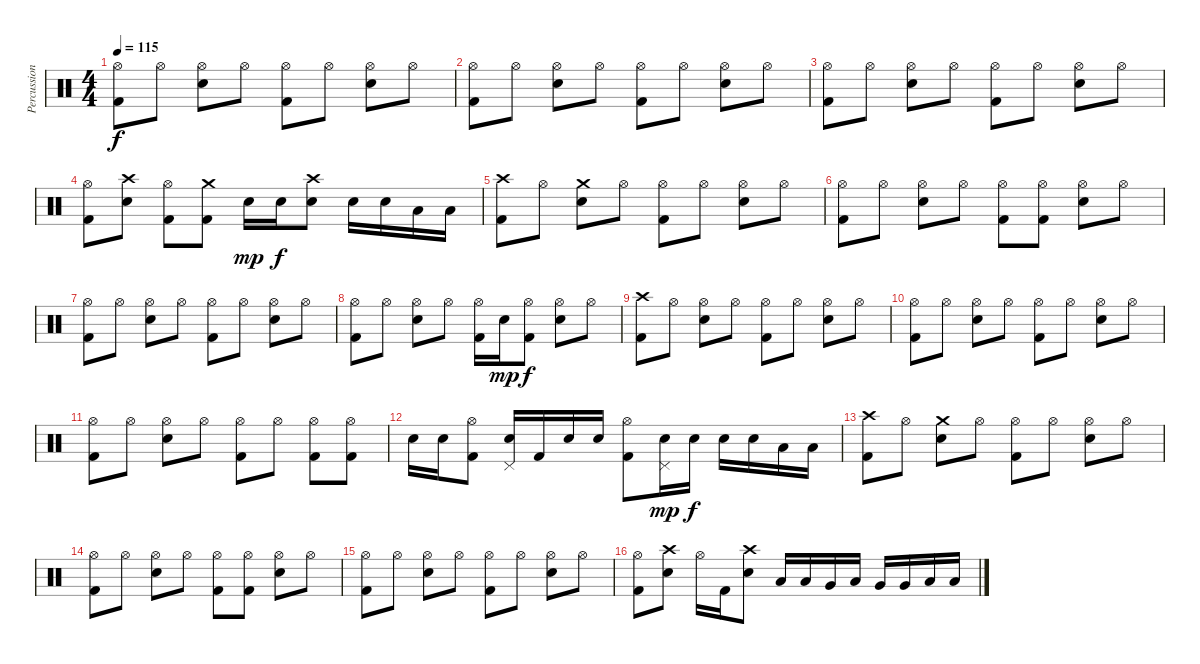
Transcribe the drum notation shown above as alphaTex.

\track ("Percussion" "Percussion") {instrument percussion}
\staff {score}
\articulation defaults
\ts (4 4)
\tempo 115
\clef neutral
\ks c
("Hi-Hat (open)" "Kick (hit) 2").8{dy f} "Hi-Hat (open)".8 ("Hi-Hat (open)" "Electric Snare (hit)").8 "Hi-Hat (open)".8 ("Hi-Hat (open)" "Kick (hit) 2").8 "Hi-Hat (open)".8 ("Hi-Hat (open)" "Electric Snare (hit)").8 "Hi-Hat (open)".8 |
("Hi-Hat (open)" "Kick (hit) 2").8 "Hi-Hat (open)".8 ("Hi-Hat (open)" "Electric Snare (hit)").8 "Hi-Hat (open)".8 ("Hi-Hat (open)" "Kick (hit) 2").8 "Hi-Hat (open)".8 ("Hi-Hat (open)" "Electric Snare (hit)").8 "Hi-Hat (open)".8 |
("Hi-Hat (open)" "Kick (hit) 2").8 "Hi-Hat (open)".8 ("Hi-Hat (open)" "Electric Snare (hit)").8 "Hi-Hat (open)".8 ("Hi-Hat (open)" "Kick (hit) 2").8 "Hi-Hat (open)".8 ("Hi-Hat (open)" "Electric Snare (hit)").8 "Hi-Hat (open)".8 |
("Hi-Hat (open)" "Kick (hit) 2").8 ("Crash high (hit)" "Electric Snare (hit)").8 ("Hi-Hat (open)" "Kick (hit) 2").8 ("Crash medium (hit)" "Kick (hit) 2").8 "Electric Snare (hit)".16{dy mp} "Electric Snare (hit)".16{dy f} ("Crash high (hit)" "Electric Snare (hit)").8 "Electric Snare (hit)".16 "Electric Snare (hit)".16 "Low Tom (hit)".16 "Low Floor Tom (hit)".16 |
("Crash high (hit)" "Kick (hit) 2").8 "Hi-Hat (open)".8 ("Crash medium (hit)" "Electric Snare (hit)").8 "Hi-Hat (open)".8 ("Hi-Hat (open)" "Kick (hit) 2").8 "Hi-Hat (open)".8 ("Hi-Hat (open)" "Electric Snare (hit)").8 "Hi-Hat (open)".8 |
("Hi-Hat (open)" "Kick (hit) 2").8 "Hi-Hat (open)".8 ("Hi-Hat (open)" "Electric Snare (hit)").8 "Hi-Hat (open)".8 ("Hi-Hat (open)" "Kick (hit) 2").8 ("Hi-Hat (open)" "Kick (hit) 2").8 ("Hi-Hat (open)" "Electric Snare (hit)").8 "Hi-Hat (open)".8 |
("Hi-Hat (open)" "Kick (hit) 2").8 "Hi-Hat (open)".8 ("Hi-Hat (open)" "Electric Snare (hit)").8 "Hi-Hat (open)".8 ("Hi-Hat (open)" "Kick (hit) 2").8 "Hi-Hat (open)".8 ("Hi-Hat (open)" "Electric Snare (hit)").8 "Hi-Hat (open)".8 |
("Hi-Hat (open)" "Kick (hit) 2").8 "Hi-Hat (open)".8 ("Hi-Hat (open)" "Electric Snare (hit)").8 "Hi-Hat (open)".8 ("Hi-Hat (open)" "Kick (hit) 2").16 "Electric Snare (hit)".16{dy mp} ("Hi-Hat (open)" "Kick (hit) 2").8{dy f} ("Hi-Hat (open)" "Electric Snare (hit)").8 "Hi-Hat (open)".8 |
("Crash high (hit)" "Kick (hit) 2").8 "Hi-Hat (open)".8 ("Hi-Hat (open)" "Electric Snare (hit)").8 "Hi-Hat (open)".8 ("Hi-Hat (open)" "Kick (hit) 2").8 "Hi-Hat (open)".8 ("Hi-Hat (open)" "Electric Snare (hit)").8 "Hi-Hat (open)".8 |
("Hi-Hat (open)" "Kick (hit) 2").8 "Hi-Hat (open)".8 ("Hi-Hat (open)" "Electric Snare (hit)").8 "Hi-Hat (open)".8 ("Hi-Hat (open)" "Kick (hit) 2").8 "Hi-Hat (open)".8 ("Hi-Hat (open)" "Electric Snare (hit)").8 "Hi-Hat (open)".8 |
("Hi-Hat (open)" "Kick (hit) 2").8 "Hi-Hat (open)".8 ("Hi-Hat (open)" "Electric Snare (hit)").8 "Hi-Hat (open)".8 ("Hi-Hat (open)" "Kick (hit) 2").8 "Hi-Hat (open)".8 ("Hi-Hat (open)" "Kick (hit) 2").8 ("Hi-Hat (open)" "Kick (hit) 2").8 |
"Electric Snare (hit)".16 "Electric Snare (hit)".16 ("Hi-Hat (open)" "Kick (hit) 2").8 ("Pedal Hi-Hat (hit)" "Electric Snare (hit)").16 "Kick (hit) 2".16 "Electric Snare (hit)".16 "Electric Snare (hit)".16 ("Hi-Hat (open)" "Kick (hit) 2").8 ("Pedal Hi-Hat (hit)" "Electric Snare (hit)").16{dy mp} "Electric Snare (hit)".16{dy f} "Electric Snare (hit)".16 "Electric Snare (hit)".16 "Low Tom (hit)".16 "Low Floor Tom (hit)".16 |
("Crash high (hit)" "Kick (hit) 2").8 "Hi-Hat (open)".8 ("Crash medium (hit)" "Electric Snare (hit)").8 "Hi-Hat (open)".8 ("Hi-Hat (open)" "Kick (hit) 2").8 "Hi-Hat (open)".8 ("Hi-Hat (open)" "Electric Snare (hit)").8 "Hi-Hat (open)".8 |
("Hi-Hat (open)" "Kick (hit) 2").8 "Hi-Hat (open)".8 ("Hi-Hat (open)" "Electric Snare (hit)").8 "Hi-Hat (open)".8 ("Hi-Hat (open)" "Kick (hit) 2").8 ("Hi-Hat (open)" "Kick (hit) 2").8 ("Hi-Hat (open)" "Electric Snare (hit)").8 "Hi-Hat (open)".8 |
("Hi-Hat (open)" "Kick (hit) 2").8 "Hi-Hat (open)".8 ("Hi-Hat (open)" "Electric Snare (hit)").8 "Hi-Hat (open)".8 ("Hi-Hat (open)" "Kick (hit) 2").8 "Hi-Hat (open)".8 ("Hi-Hat (open)" "Electric Snare (hit)").8 "Hi-Hat (open)".8 |
("Hi-Hat (open)" "Kick (hit) 2").8 ("Crash high (hit)" "Electric Snare (hit)").8 "Hi-Hat (open)".16 "Kick (hit) 2".16 ("Crash high (hit)" "Electric Snare (hit)").8 "Low Tom (hit)".16 "Low Tom (hit)".16 "Very Low Tom (hit)".16 "Low Floor Tom (hit)".16 "Very Low Tom (hit)".16 "Very Low Tom (hit)".16 "Low Floor Tom (hit)".16 "Low Floor Tom (hit)".16
